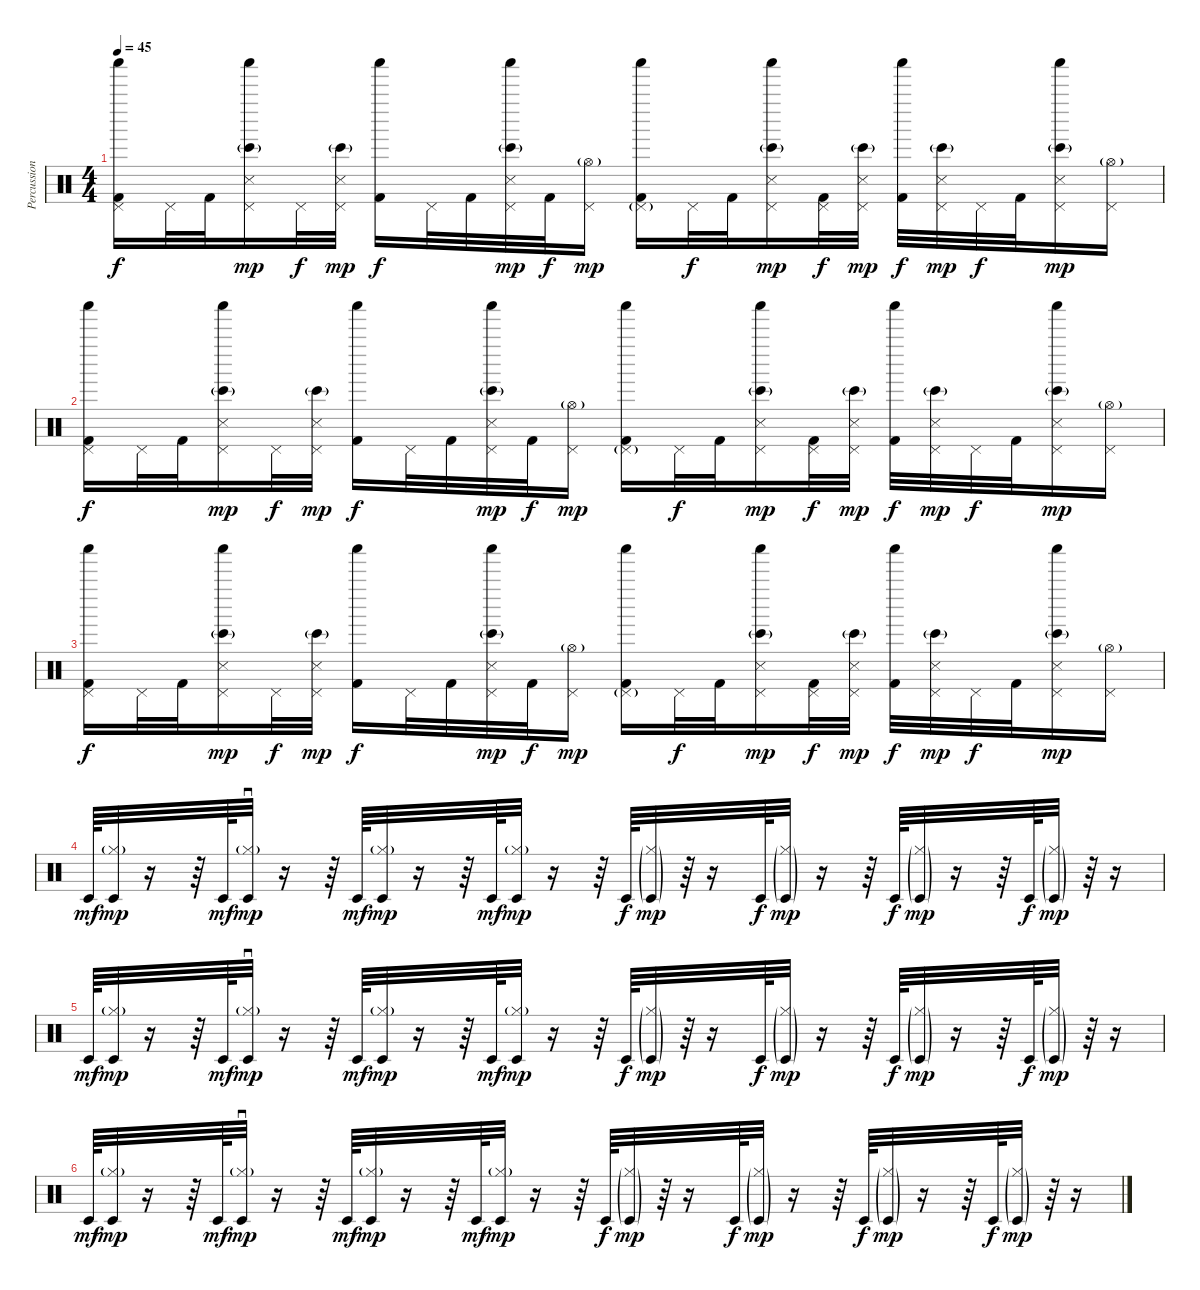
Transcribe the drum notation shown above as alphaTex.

\track ("Percussion" "Percussion") {instrument percussion}
\staff {score}
\articulation defaults
\ts (4 4)
\tempo 45
\clef neutral
\ks c
("Pedal Hi-Hat (hit)" "Shaker (hit)" "Kick (hit) 2").16{dy f volume 6} "Pedal Hi-Hat (hit)".32 "Kick (hit) 2".32 ("Pedal Hi-Hat (hit)" "Shaker (hit)" "Snare (side stick) 3" "Bongo High (hit)"{g}).16{dy mp} "Pedal Hi-Hat (hit)".32{dy f} ("Pedal Hi-Hat (hit)" "Snare (side stick) 3" "Bongo High (hit)"{g}).32{dy mp} ("Shaker (hit)" "Kick (hit) 2").16{dy f} "Pedal Hi-Hat (hit)".32 "Kick (hit) 2".32 ("Pedal Hi-Hat (hit)" "Shaker (hit)" "Snare (side stick) 3" "Bongo High (hit)"{g}).32{dy mp} "Kick (hit) 2".32{dy f} ("Hi-Hat (open)"{g} "Pedal Hi-Hat (hit)").16{dy mp} ("Pedal Hi-Hat (hit)"{g} "Shaker (hit)" "Kick (hit) 2").16 "Pedal Hi-Hat (hit)".32{dy f} "Kick (hit) 2".32 ("Pedal Hi-Hat (hit)" "Shaker (hit)" "Snare (side stick) 3" "Bongo High (hit)"{g}).16{dy mp} ("Pedal Hi-Hat (hit)" "Kick (hit) 2").32{dy f} ("Pedal Hi-Hat (hit)" "Snare (side stick) 3" "Bongo High (hit)"{g}).32{dy mp} ("Shaker (hit)" "Kick (hit) 2").32{dy f} ("Pedal Hi-Hat (hit)" "Snare (side stick) 3" "Bongo High (hit)"{g}).32{dy mp} "Pedal Hi-Hat (hit)".32{dy f} "Kick (hit) 2".32 ("Pedal Hi-Hat (hit)" "Shaker (hit)" "Snare (side stick) 3" "Bongo High (hit)"{g}).16{dy mp} ("Hi-Hat (open)"{g} "Pedal Hi-Hat (hit)").16 |
("Pedal Hi-Hat (hit)" "Shaker (hit)" "Kick (hit) 2").16{dy f volume 4} "Pedal Hi-Hat (hit)".32 "Kick (hit) 2".32 ("Pedal Hi-Hat (hit)" "Shaker (hit)" "Snare (side stick) 3" "Bongo High (hit)"{g}).16{dy mp} "Pedal Hi-Hat (hit)".32{dy f} ("Pedal Hi-Hat (hit)" "Snare (side stick) 3" "Bongo High (hit)"{g}).32{dy mp} ("Shaker (hit)" "Kick (hit) 2").16{dy f} "Pedal Hi-Hat (hit)".32 "Kick (hit) 2".32 ("Pedal Hi-Hat (hit)" "Shaker (hit)" "Snare (side stick) 3" "Bongo High (hit)"{g}).32{dy mp} "Kick (hit) 2".32{dy f} ("Hi-Hat (open)"{g} "Pedal Hi-Hat (hit)").16{dy mp} ("Pedal Hi-Hat (hit)"{g} "Shaker (hit)" "Kick (hit) 2").16 "Pedal Hi-Hat (hit)".32{dy f} "Kick (hit) 2".32 ("Pedal Hi-Hat (hit)" "Shaker (hit)" "Snare (side stick) 3" "Bongo High (hit)"{g}).16{dy mp} ("Pedal Hi-Hat (hit)" "Kick (hit) 2").32{dy f} ("Pedal Hi-Hat (hit)" "Snare (side stick) 3" "Bongo High (hit)"{g}).32{dy mp} ("Shaker (hit)" "Kick (hit) 2").32{dy f} ("Pedal Hi-Hat (hit)" "Snare (side stick) 3" "Bongo High (hit)"{g}).32{dy mp} "Pedal Hi-Hat (hit)".32{dy f} "Kick (hit) 2".32 ("Pedal Hi-Hat (hit)" "Shaker (hit)" "Snare (side stick) 3" "Bongo High (hit)"{g}).16{dy mp} ("Hi-Hat (open)"{g} "Pedal Hi-Hat (hit)").16 |
("Pedal Hi-Hat (hit)" "Shaker (hit)" "Kick (hit) 2").16{dy f volume 2} "Pedal Hi-Hat (hit)".32 "Kick (hit) 2".32 ("Pedal Hi-Hat (hit)" "Shaker (hit)" "Snare (side stick) 3" "Bongo High (hit)"{g}).16{dy mp} "Pedal Hi-Hat (hit)".32{dy f} ("Pedal Hi-Hat (hit)" "Snare (side stick) 3" "Bongo High (hit)"{g}).32{dy mp} ("Shaker (hit)" "Kick (hit) 2").16{dy f} "Pedal Hi-Hat (hit)".32 "Kick (hit) 2".32 ("Pedal Hi-Hat (hit)" "Shaker (hit)" "Snare (side stick) 3" "Bongo High (hit)"{g}).32{dy mp} "Kick (hit) 2".32{dy f} ("Hi-Hat (open)"{g} "Pedal Hi-Hat (hit)").16{dy mp} ("Pedal Hi-Hat (hit)"{g} "Shaker (hit)" "Kick (hit) 2").16 "Pedal Hi-Hat (hit)".32{dy f} "Kick (hit) 2".32 ("Pedal Hi-Hat (hit)" "Shaker (hit)" "Snare (side stick) 3" "Bongo High (hit)"{g}).16{dy mp} ("Pedal Hi-Hat (hit)" "Kick (hit) 2").32{dy f} ("Pedal Hi-Hat (hit)" "Snare (side stick) 3" "Bongo High (hit)"{g}).32{dy mp} ("Shaker (hit)" "Kick (hit) 2").32{dy f} ("Pedal Hi-Hat (hit)" "Snare (side stick) 3" "Bongo High (hit)"{g}).32{dy mp} "Pedal Hi-Hat (hit)".32{dy f} "Kick (hit) 2".32 ("Pedal Hi-Hat (hit)" "Shaker (hit)" "Snare (side stick) 3" "Bongo High (hit)"{g}).16{dy mp} ("Hi-Hat (open)"{g} "Pedal Hi-Hat (hit)").16 |
"Timbale low (hit)".64{dy mf volume 6} ("Timbale low (hit)" "Hi-Hat (closed)"{g}).32{dy mp} r.16 r.64 "Timbale low (hit)".64{dy mf volume 7} ("Timbale low (hit)" "Hi-Hat (closed)"{g}).32{sd dy mp} r.16 r.64 "Timbale low (hit)".64{dy mf volume 8} ("Timbale low (hit)" "Hi-Hat (closed)"{g}).32{dy mp} r.16 r.64 "Timbale low (hit)".64{dy mf volume 9} ("Timbale low (hit)" "Hi-Hat (closed)"{g}).32{dy mp} r.16 r.64 "Timbale low (hit)".64{dy f volume 10} ("Timbale low (hit)"{g} "Hi-Hat (closed)"{g}).32{dy mp} r.64 r.16 "Timbale low (hit)".64{dy f volume 11} ("Timbale low (hit)"{g} "Hi-Hat (closed)"{g}).32{dy mp} r.16 r.64 "Timbale low (hit)".64{dy f volume 11} ("Timbale low (hit)"{g} "Hi-Hat (closed)"{g}).32{dy mp} r.16 r.64 "Timbale low (hit)".64{dy f volume 12} ("Timbale low (hit)"{g} "Hi-Hat (closed)"{g}).32{dy mp} r.64 r.16 |
"Timbale low (hit)".64{dy mf volume 13} ("Timbale low (hit)" "Hi-Hat (closed)"{g}).32{dy mp} r.16 r.64 "Timbale low (hit)".64{dy mf} ("Timbale low (hit)" "Hi-Hat (closed)"{g}).32{sd dy mp} r.16 r.64 "Timbale low (hit)".64{dy mf} ("Timbale low (hit)" "Hi-Hat (closed)"{g}).32{dy mp} r.16 r.64 "Timbale low (hit)".64{dy mf} ("Timbale low (hit)" "Hi-Hat (closed)"{g}).32{dy mp} r.16 r.64 "Timbale low (hit)".64{dy f} ("Timbale low (hit)"{g} "Hi-Hat (closed)"{g}).32{dy mp} r.64 r.16 "Timbale low (hit)".64{dy f} ("Timbale low (hit)"{g} "Hi-Hat (closed)"{g}).32{dy mp} r.16 r.64 "Timbale low (hit)".64{dy f} ("Timbale low (hit)"{g} "Hi-Hat (closed)"{g}).32{dy mp} r.16 r.64 "Timbale low (hit)".64{dy f} ("Timbale low (hit)"{g} "Hi-Hat (closed)"{g}).32{dy mp} r.64 r.16 |
"Timbale low (hit)".64{dy mf volume 13} ("Timbale low (hit)" "Hi-Hat (closed)"{g}).32{dy mp} r.16 r.64 "Timbale low (hit)".64{dy mf volume 11} ("Timbale low (hit)" "Hi-Hat (closed)"{g}).32{sd dy mp} r.16 r.64 "Timbale low (hit)".64{dy mf volume 9} ("Timbale low (hit)" "Hi-Hat (closed)"{g}).32{dy mp} r.16 r.64 "Timbale low (hit)".64{dy mf volume 7} ("Timbale low (hit)" "Hi-Hat (closed)"{g}).32{dy mp} r.16 r.64 "Timbale low (hit)".64{dy f volume 5} ("Timbale low (hit)"{g} "Hi-Hat (closed)"{g}).32{dy mp} r.64 r.16 "Timbale low (hit)".64{dy f volume 3} ("Timbale low (hit)"{g} "Hi-Hat (closed)"{g}).32{dy mp} r.16 r.64 "Timbale low (hit)".64{dy f volume 1} ("Timbale low (hit)"{g} "Hi-Hat (closed)"{g}).32{dy mp} r.16 r.64 "Timbale low (hit)".64{dy f} ("Timbale low (hit)"{g} "Hi-Hat (closed)"{g}).32{dy mp} r.64 r.16
